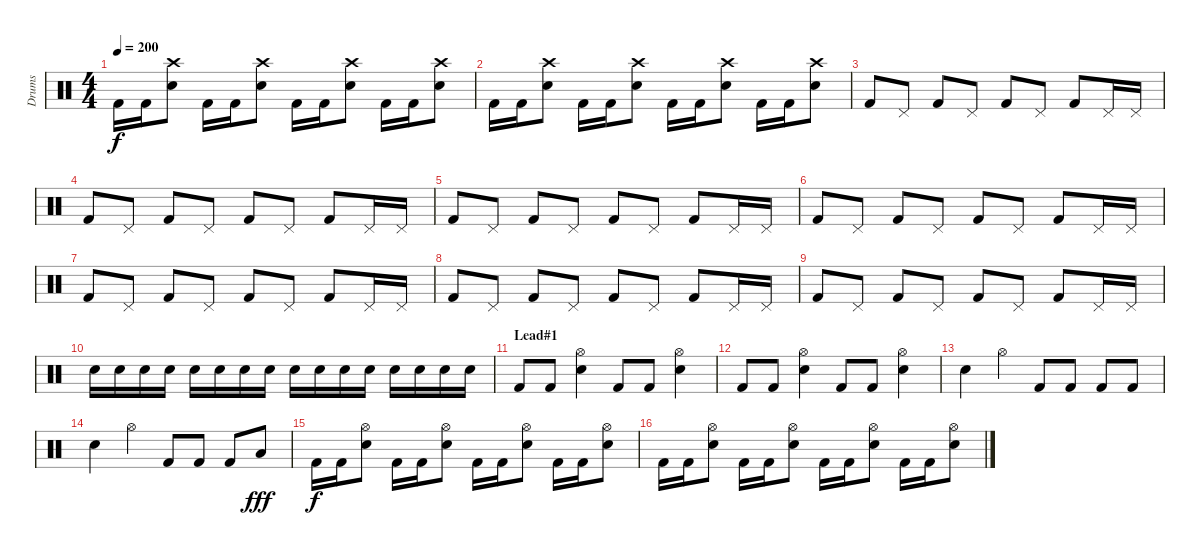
\track ("Drums" "Drums") {instrument percussion}
\staff {score}
\articulation defaults
\ts (4 4)
\tempo 200
\clef neutral
\ks c "Kick (hit) 2".16{dy f} "Kick (hit) 2".16
("Crash high (hit)" "Snare (hit) 2").8 "Kick (hit) 2".16 "Kick (hit) 2".16 ("Crash high (hit)" "Snare (hit) 2").8 "Kick (hit) 2".16 "Kick (hit) 2".16 ("Crash high (hit)" "Snare (hit) 2").8 "Kick (hit) 2".16 "Kick (hit) 2".16 ("Crash high (hit)" "Snare (hit) 2").8 |
"Kick (hit) 2".16 "Kick (hit) 2".16 ("Crash high (hit)" "Snare (hit) 2").8 "Kick (hit) 2".16 "Kick (hit) 2".16 ("Crash high (hit)" "Snare (hit) 2").8 "Kick (hit) 2".16 "Kick (hit) 2".16 ("Crash high (hit)" "Snare (hit) 2").8 "Kick (hit) 2".16 "Kick (hit) 2".16 ("Crash high (hit)" "Snare (hit) 2").8 |
"Kick (hit) 2".8 "Pedal Hi-Hat (hit)".8 "Kick (hit) 2".8 "Pedal Hi-Hat (hit)".8 "Kick (hit) 2".8 "Pedal Hi-Hat (hit)".8 "Kick (hit) 2".8 "Pedal Hi-Hat (hit)".16 "Pedal Hi-Hat (hit)".16 |
"Kick (hit) 2".8 "Pedal Hi-Hat (hit)".8 "Kick (hit) 2".8 "Pedal Hi-Hat (hit)".8 "Kick (hit) 2".8 "Pedal Hi-Hat (hit)".8 "Kick (hit) 2".8 "Pedal Hi-Hat (hit)".16 "Pedal Hi-Hat (hit)".16 |
"Kick (hit) 2".8 "Pedal Hi-Hat (hit)".8 "Kick (hit) 2".8 "Pedal Hi-Hat (hit)".8 "Kick (hit) 2".8 "Pedal Hi-Hat (hit)".8 "Kick (hit) 2".8 "Pedal Hi-Hat (hit)".16 "Pedal Hi-Hat (hit)".16 |
"Kick (hit) 2".8 "Pedal Hi-Hat (hit)".8 "Kick (hit) 2".8 "Pedal Hi-Hat (hit)".8 "Kick (hit) 2".8 "Pedal Hi-Hat (hit)".8 "Kick (hit) 2".8 "Pedal Hi-Hat (hit)".16 "Pedal Hi-Hat (hit)".16 |
"Kick (hit) 2".8 "Pedal Hi-Hat (hit)".8 "Kick (hit) 2".8 "Pedal Hi-Hat (hit)".8 "Kick (hit) 2".8 "Pedal Hi-Hat (hit)".8 "Kick (hit) 2".8 "Pedal Hi-Hat (hit)".16 "Pedal Hi-Hat (hit)".16 |
"Kick (hit) 2".8 "Pedal Hi-Hat (hit)".8 "Kick (hit) 2".8 "Pedal Hi-Hat (hit)".8 "Kick (hit) 2".8 "Pedal Hi-Hat (hit)".8 "Kick (hit) 2".8 "Pedal Hi-Hat (hit)".16 "Pedal Hi-Hat (hit)".16 |
"Kick (hit) 2".8 "Pedal Hi-Hat (hit)".8 "Kick (hit) 2".8 "Pedal Hi-Hat (hit)".8 "Kick (hit) 2".8 "Pedal Hi-Hat (hit)".8 "Kick (hit) 2".8 "Pedal Hi-Hat (hit)".16 "Pedal Hi-Hat (hit)".16 |
"Snare (hit) 2".16 "Snare (hit) 2".16 "Snare (hit) 2".16 "Snare (hit) 2".16 "Snare (hit) 2".16 "Snare (hit) 2".16 "Snare (hit) 2".16 "Snare (hit) 2".16 "Snare (hit) 2".16 "Snare (hit) 2".16 "Snare (hit) 2".16 "Snare (hit) 2".16 "Snare (hit) 2".16 "Snare (hit) 2".16 "Snare (hit) 2".16 "Snare (hit) 2".16 |
\section ("" "Lead#1")
"Kick (hit) 2".8 "Kick (hit) 2".8 ("Hi-Hat (open)" "Snare (hit) 2").4 "Kick (hit) 2".8 "Kick (hit) 2".8 ("Hi-Hat (open)" "Snare (hit) 2").4 |
"Kick (hit) 2".8 "Kick (hit) 2".8 ("Hi-Hat (open)" "Snare (hit) 2").4 "Kick (hit) 2".8 "Kick (hit) 2".8 ("Hi-Hat (open)" "Snare (hit) 2").4 |
"Snare (hit) 2".4 "Hi-Hat (open)".4 "Kick (hit) 2".8 "Kick (hit) 2".8 "Kick (hit) 2".8 "Kick (hit) 2".8 |
"Snare (hit) 2".4 "Hi-Hat (open)".4 "Kick (hit) 2".8 "Kick (hit) 2".8 "Kick (hit) 2".8 "Low Floor Tom (hit)".8{dy fff} |
"Kick (hit) 2".16{dy f} "Kick (hit) 2".16 ("Hi-Hat (open)" "Snare (hit) 2").8 "Kick (hit) 2".16 "Kick (hit) 2".16 ("Hi-Hat (open)" "Snare (hit) 2").8 "Kick (hit) 2".16 "Kick (hit) 2".16 ("Hi-Hat (open)" "Snare (hit) 2").8 "Kick (hit) 2".16 "Kick (hit) 2".16 ("Hi-Hat (open)" "Snare (hit) 2").8 |
"Kick (hit) 2".16 "Kick (hit) 2".16 ("Hi-Hat (open)" "Snare (hit) 2").8 "Kick (hit) 2".16 "Kick (hit) 2".16 ("Hi-Hat (open)" "Snare (hit) 2").8 "Kick (hit) 2".16 "Kick (hit) 2".16 ("Hi-Hat (open)" "Snare (hit) 2").8 "Kick (hit) 2".16 "Kick (hit) 2".16 ("Hi-Hat (open)" "Snare (hit) 2").8
